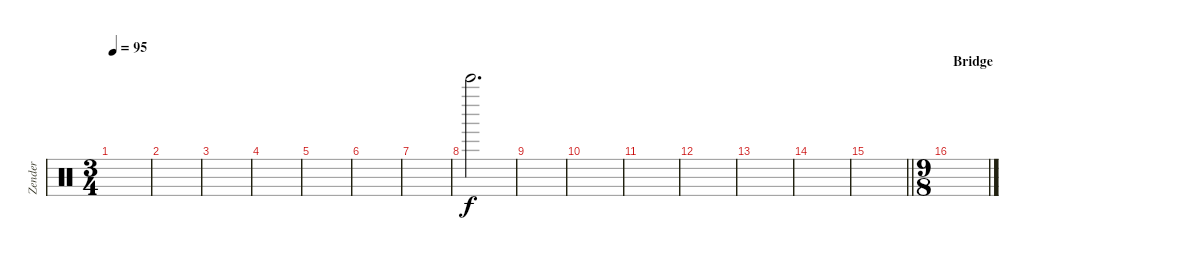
\track ("Zender" "Zender") {instrument percussion}
\staff {score}
\articulation defaults
\ts (3 4)
\tempo 95
\clef neutral
\ks c
|
|
|
|
|
|
|
"Bell Tree (hit)".2{d} |
|
|
|
|
|
|
\barLineRight lightlight
|
\ts (9 8)
\section ("" "Bridge")
